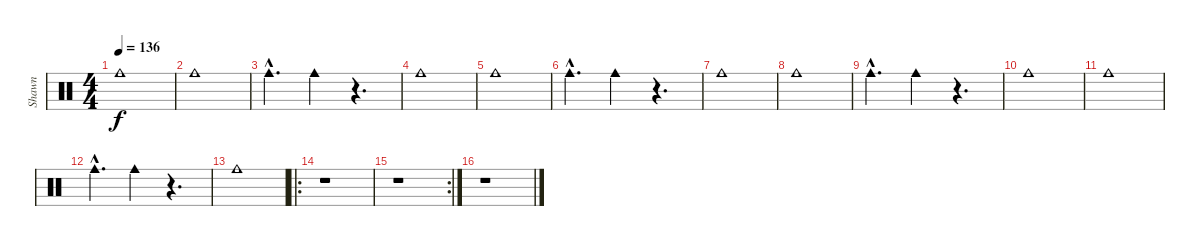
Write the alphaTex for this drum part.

\track ("Shawn" "Shawn") {instrument percussion}
\staff {score}
\articulation defaults
\ts (4 4)
\tempo 136
\clef neutral
\ks c "Cowbell medium (hit)".1{dy f}
|
"Cowbell medium (hit)".1 |
"Cowbell medium (hit)"{hac}.4{d} "Cowbell medium (hit)".4 r.4{d} |
"Cowbell medium (hit)".1 |
"Cowbell medium (hit)".1 |
"Cowbell medium (hit)"{hac}.4{d} "Cowbell medium (hit)".4 r.4{d} |
"Cowbell medium (hit)".1 |
"Cowbell medium (hit)".1 |
"Cowbell medium (hit)"{hac}.4{d} "Cowbell medium (hit)".4 r.4{d} |
"Cowbell medium (hit)".1 |
"Cowbell medium (hit)".1 |
"Cowbell medium (hit)"{hac}.4{d} "Cowbell medium (hit)".4 r.4{d} |
"Cowbell medium (hit)".1 |
\ro
r.1 |
\rc 2
r.1 |
r.1
